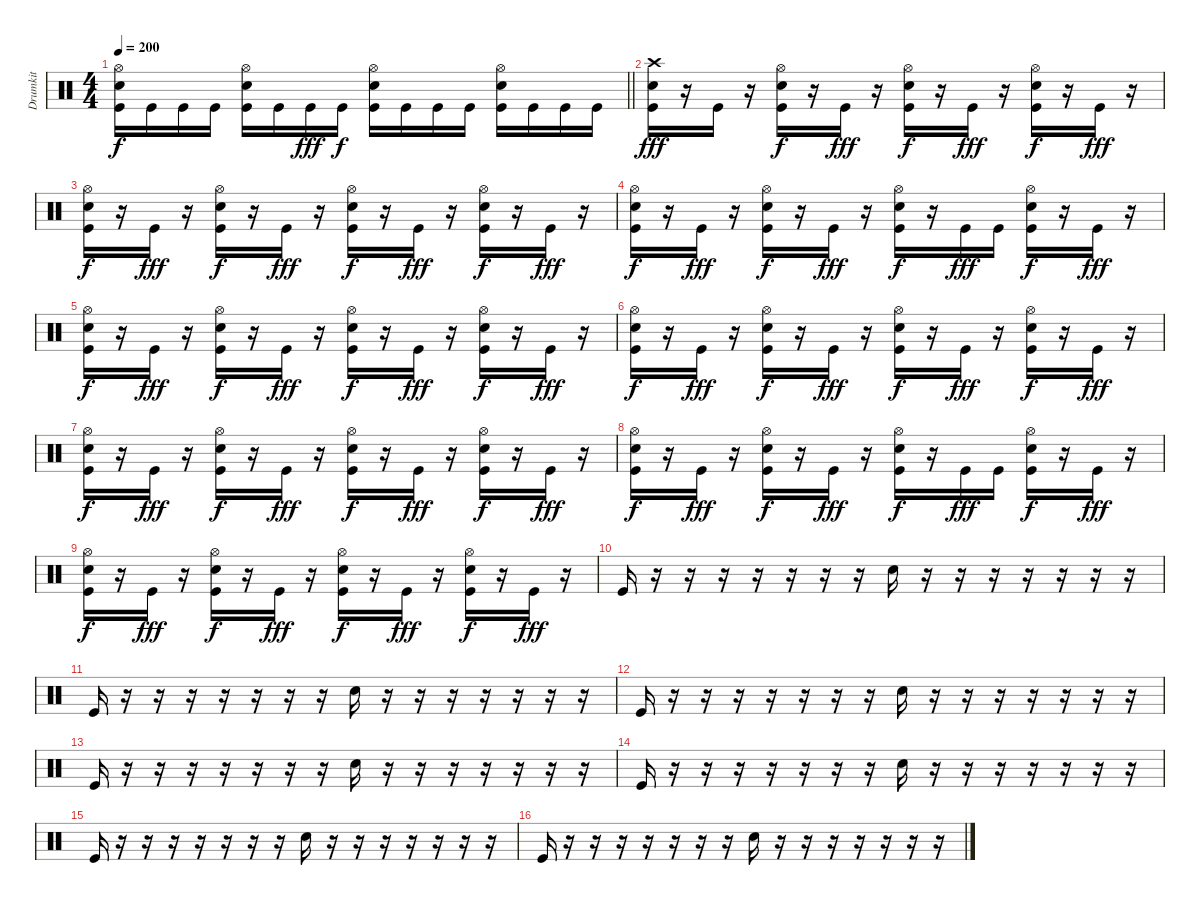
\track ("Drumkit" "Drumkit") {instrument percussion}
\staff {score}
\articulation defaults
\ts (4 4)
\tempo 200
\clef neutral
\barLineRight lightlight
\ks c
("Hi-Hat (open)" "Snare (hit) 2" "Kick (hit)").16{dy f} "Kick (hit)".16 "Kick (hit)".16 "Kick (hit)".16 ("Hi-Hat (open)" "Snare (hit) 2" "Kick (hit)").16 "Kick (hit)".16 "Kick (hit)".16{dy fff} "Kick (hit)".16{dy f} ("Hi-Hat (open)" "Snare (hit) 2" "Kick (hit)").16 "Kick (hit)".16 "Kick (hit)".16 "Kick (hit)".16 ("Hi-Hat (open)" "Snare (hit) 2" "Kick (hit)").16 "Kick (hit)".16 "Kick (hit)".16 "Kick (hit)".16 |
("Crash high (hit)" "Snare (hit) 2" "Kick (hit)").16{dy fff} r.16 "Kick (hit)".16 r.16 ("Hi-Hat (open)" "Snare (hit) 2" "Kick (hit)").16{dy f} r.16 "Kick (hit)".16{dy fff} r.16 ("Hi-Hat (open)" "Snare (hit) 2" "Kick (hit)").16{dy f} r.16 "Kick (hit)".16{dy fff} r.16 ("Hi-Hat (open)" "Snare (hit) 2" "Kick (hit)").16{dy f} r.16 "Kick (hit)".16{dy fff} r.16 |
("Hi-Hat (open)" "Snare (hit) 2" "Kick (hit)").16{dy f} r.16 "Kick (hit)".16{dy fff} r.16 ("Hi-Hat (open)" "Snare (hit) 2" "Kick (hit)").16{dy f} r.16 "Kick (hit)".16{dy fff} r.16 ("Hi-Hat (open)" "Snare (hit) 2" "Kick (hit)").16{dy f} r.16 "Kick (hit)".16{dy fff} r.16 ("Hi-Hat (open)" "Snare (hit) 2" "Kick (hit)").16{dy f} r.16 "Kick (hit)".16{dy fff} r.16 |
("Hi-Hat (open)" "Snare (hit) 2" "Kick (hit)").16{dy f} r.16 "Kick (hit)".16{dy fff} r.16 ("Hi-Hat (open)" "Snare (hit) 2" "Kick (hit)").16{dy f} r.16 "Kick (hit)".16{dy fff} r.16 ("Hi-Hat (open)" "Snare (hit) 2" "Kick (hit)").16{dy f} r.16 "Kick (hit)".16{dy fff} "Kick (hit)".16 ("Hi-Hat (open)" "Snare (hit) 2" "Kick (hit)").16{dy f} r.16 "Kick (hit)".16{dy fff} r.16 |
("Hi-Hat (open)" "Snare (hit) 2" "Kick (hit)").16{dy f} r.16 "Kick (hit)".16{dy fff} r.16 ("Hi-Hat (open)" "Snare (hit) 2" "Kick (hit)").16{dy f} r.16 "Kick (hit)".16{dy fff} r.16 ("Hi-Hat (open)" "Snare (hit) 2" "Kick (hit)").16{dy f} r.16 "Kick (hit)".16{dy fff} r.16 ("Hi-Hat (open)" "Snare (hit) 2" "Kick (hit)").16{dy f} r.16 "Kick (hit)".16{dy fff} r.16 |
("Hi-Hat (open)" "Snare (hit) 2" "Kick (hit)").16{dy f} r.16 "Kick (hit)".16{dy fff} r.16 ("Hi-Hat (open)" "Snare (hit) 2" "Kick (hit)").16{dy f} r.16 "Kick (hit)".16{dy fff} r.16 ("Hi-Hat (open)" "Snare (hit) 2" "Kick (hit)").16{dy f} r.16 "Kick (hit)".16{dy fff} r.16 ("Hi-Hat (open)" "Snare (hit) 2" "Kick (hit)").16{dy f} r.16 "Kick (hit)".16{dy fff} r.16 |
("Hi-Hat (open)" "Snare (hit) 2" "Kick (hit)").16{dy f} r.16 "Kick (hit)".16{dy fff} r.16 ("Hi-Hat (open)" "Snare (hit) 2" "Kick (hit)").16{dy f} r.16 "Kick (hit)".16{dy fff} r.16 ("Hi-Hat (open)" "Snare (hit) 2" "Kick (hit)").16{dy f} r.16 "Kick (hit)".16{dy fff} r.16 ("Hi-Hat (open)" "Snare (hit) 2" "Kick (hit)").16{dy f} r.16 "Kick (hit)".16{dy fff} r.16 |
("Hi-Hat (open)" "Snare (hit) 2" "Kick (hit)").16{dy f} r.16 "Kick (hit)".16{dy fff} r.16 ("Hi-Hat (open)" "Snare (hit) 2" "Kick (hit)").16{dy f} r.16 "Kick (hit)".16{dy fff} r.16 ("Hi-Hat (open)" "Snare (hit) 2" "Kick (hit)").16{dy f} r.16 "Kick (hit)".16{dy fff} "Kick (hit)".16 ("Hi-Hat (open)" "Snare (hit) 2" "Kick (hit)").16{dy f} r.16 "Kick (hit)".16{dy fff} r.16 |
("Hi-Hat (open)" "Snare (hit) 2" "Kick (hit)").16{dy f} r.16 "Kick (hit)".16{dy fff} r.16 ("Hi-Hat (open)" "Snare (hit) 2" "Kick (hit)").16{dy f} r.16 "Kick (hit)".16{dy fff} r.16 ("Hi-Hat (open)" "Snare (hit) 2" "Kick (hit)").16{dy f} r.16 "Kick (hit)".16{dy fff} r.16 ("Hi-Hat (open)" "Snare (hit) 2" "Kick (hit)").16{dy f} r.16 "Kick (hit)".16{dy fff} r.16 |
"Kick (hit)".16 r.16 r.16 r.16 r.16 r.16 r.16 r.16 "Snare (hit) 2".16 r.16 r.16 r.16 r.16 r.16 r.16 r.16 |
"Kick (hit)".16 r.16 r.16 r.16 r.16 r.16 r.16 r.16 "Snare (hit) 2".16 r.16 r.16 r.16 r.16 r.16 r.16 r.16 |
"Kick (hit)".16 r.16 r.16 r.16 r.16 r.16 r.16 r.16 "Snare (hit) 2".16 r.16 r.16 r.16 r.16 r.16 r.16 r.16 |
"Kick (hit)".16 r.16 r.16 r.16 r.16 r.16 r.16 r.16 "Snare (hit) 2".16 r.16 r.16 r.16 r.16 r.16 r.16 r.16 |
"Kick (hit)".16 r.16 r.16 r.16 r.16 r.16 r.16 r.16 "Snare (hit) 2".16 r.16 r.16 r.16 r.16 r.16 r.16 r.16 |
"Kick (hit)".16 r.16 r.16 r.16 r.16 r.16 r.16 r.16 "Snare (hit) 2".16 r.16 r.16 r.16 r.16 r.16 r.16 r.16 |
"Kick (hit)".16 r.16 r.16 r.16 r.16 r.16 r.16 r.16 "Snare (hit) 2".16 r.16 r.16 r.16 r.16 r.16 r.16 r.16
